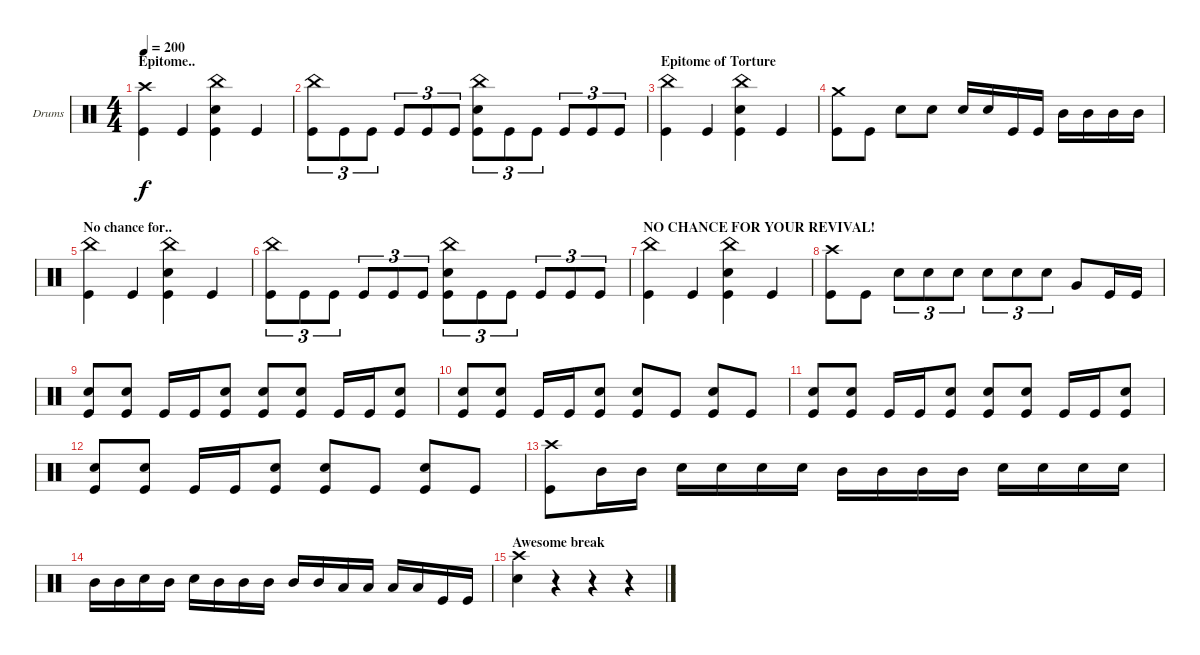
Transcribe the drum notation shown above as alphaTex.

\defaultSystemsLayout 4
\bracketExtendMode groupsimilarinstruments
\firstSystemTrackNameOrientation horizontal
\otherSystemsTrackNameOrientation horizontal
\track ("Markus Freiwald" "Drums") {instrument percussion}
\staff {score}
\articulation defaults
\ts (4 4)
\section ("" "Epitome..")
\tempo 200
\clef neutral
\ks c
("Crash high (hit)" "Kick (hit)").4{dy f} "Kick (hit)".4 ("Snare (hit) 2" "Kick (hit)" "China (hit)").4 "Kick (hit)".4 |
("China (hit)" "Kick (hit)").8{tu (3 2)} "Kick (hit)".8{tu (3 2)} "Kick (hit)".8{tu (3 2)} "Kick (hit)".8{tu (3 2)} "Kick (hit)".8{tu (3 2)} "Kick (hit)".8{tu (3 2)} ("China (hit)" "Kick (hit)" "Snare (hit) 2").8{tu (3 2)} "Kick (hit)".8{tu (3 2)} "Kick (hit)".8{tu (3 2)} "Kick (hit)".8{tu (3 2)} "Kick (hit)".8{tu (3 2)} "Kick (hit)".8{tu (3 2)} |
\section ("" "Epitome of Torture")
("Kick (hit)" "China (hit)").4 "Kick (hit)".4 ("Snare (hit) 2" "Kick (hit)" "China (hit)").4 "Kick (hit)".4 |
("Crash medium (hit)" "Kick (hit)").8 "Kick (hit)".8 "Snare (hit) 2".8 "Snare (hit) 2".8 "Snare (hit) 2".16 "Snare (hit) 2".16 "Kick (hit)".16 "Kick (hit)".16 "Mid Tom (hit)".16 "Mid Tom (hit)".16 "Mid Tom (hit)".16 "Mid Tom (hit)".16 |
\section ("" "No chance for..")
("Kick (hit)" "China (hit)").4 "Kick (hit)".4 ("Snare (hit) 2" "Kick (hit)" "China (hit)").4 "Kick (hit)".4 |
("China (hit)" "Kick (hit)").8{tu (3 2)} "Kick (hit)".8{tu (3 2)} "Kick (hit)".8{tu (3 2)} "Kick (hit)".8{tu (3 2)} "Kick (hit)".8{tu (3 2)} "Kick (hit)".8{tu (3 2)} ("China (hit)" "Kick (hit)" "Snare (hit) 2").8{tu (3 2)} "Kick (hit)".8{tu (3 2)} "Kick (hit)".8{tu (3 2)} "Kick (hit)".8{tu (3 2)} "Kick (hit)".8{tu (3 2)} "Kick (hit)".8{tu (3 2)} |
\section ("" "NO CHANCE FOR YOUR REVIVAL!")
("Kick (hit)" "China (hit)").4 "Kick (hit)".4 ("Snare (hit) 2" "Kick (hit)" "China (hit)").4 "Kick (hit)".4 |
("Kick (hit)" "Crash high (hit)").8 "Kick (hit)".8 "Snare (hit) 2".8{tu (3 2)} "Snare (hit) 2".8{tu (3 2)} "Snare (hit) 2".8{tu (3 2)} "Snare (hit) 2".8{tu (3 2)} "Snare (hit) 2".8{tu (3 2)} "Snare (hit) 2".8{tu (3 2)} "Very Low Tom (hit)".8 "Kick (hit)".16 "Kick (hit)".16 |
("Snare (hit) 2" "Kick (hit)").8 ("Snare (hit) 2" "Kick (hit)").8 "Kick (hit)".16 "Kick (hit)".16 ("Snare (hit) 2" "Kick (hit)").8 ("Snare (hit) 2" "Kick (hit)").8 ("Snare (hit) 2" "Kick (hit)").8 "Kick (hit)".16 "Kick (hit)".16 ("Snare (hit) 2" "Kick (hit)").8 |
("Snare (hit) 2" "Kick (hit)").8 ("Snare (hit) 2" "Kick (hit)").8 "Kick (hit)".16 "Kick (hit)".16 ("Snare (hit) 2" "Kick (hit)").8 ("Snare (hit) 2" "Kick (hit)").8 "Kick (hit)".8 ("Snare (hit) 2" "Kick (hit)").8 "Kick (hit)".8 |
("Snare (hit) 2" "Kick (hit)").8 ("Snare (hit) 2" "Kick (hit)").8 "Kick (hit)".16 "Kick (hit)".16 ("Snare (hit) 2" "Kick (hit)").8 ("Snare (hit) 2" "Kick (hit)").8 ("Snare (hit) 2" "Kick (hit)").8 "Kick (hit)".16 "Kick (hit)".16 ("Snare (hit) 2" "Kick (hit)").8 |
("Snare (hit) 2" "Kick (hit)").8 ("Snare (hit) 2" "Kick (hit)").8 "Kick (hit)".16 "Kick (hit)".16 ("Snare (hit) 2" "Kick (hit)").8 ("Snare (hit) 2" "Kick (hit)").8 "Kick (hit)".8 ("Snare (hit) 2" "Kick (hit)").8 "Kick (hit)".8 |
("Kick (hit)" "Crash high (hit)").8 "Mid Tom (hit)".16 "Mid Tom (hit)".16 "Snare (hit) 2".16 "Snare (hit) 2".16 "Snare (hit) 2".16 "Snare (hit) 2".16 "Mid Tom (hit)".16 "Mid Tom (hit)".16 "Mid Tom (hit)".16 "Mid Tom (hit)".16 "Snare (hit) 2".16 "Snare (hit) 2".16 "Snare (hit) 2".16 "Snare (hit) 2".16 |
"Mid Tom (hit)".16 "Mid Tom (hit)".16 "Snare (hit) 2".16 "Mid Tom (hit)".16 "Snare (hit) 2".16 "Mid Tom (hit)".16 "Mid Tom (hit)".16 "Mid Tom (hit)".16 "Mid Tom (hit)".16 "Mid Tom (hit)".16 "Low Tom (hit)".16 "Low Tom (hit)".16 "Low Tom (hit)".16 "Low Tom (hit)".16 "Kick (hit)".16 "Kick (hit)".16 |
\section ("" "Awesome break")
("Crash high (hit)" "Snare (hit) 2").4 r.4 r.4 r.4
